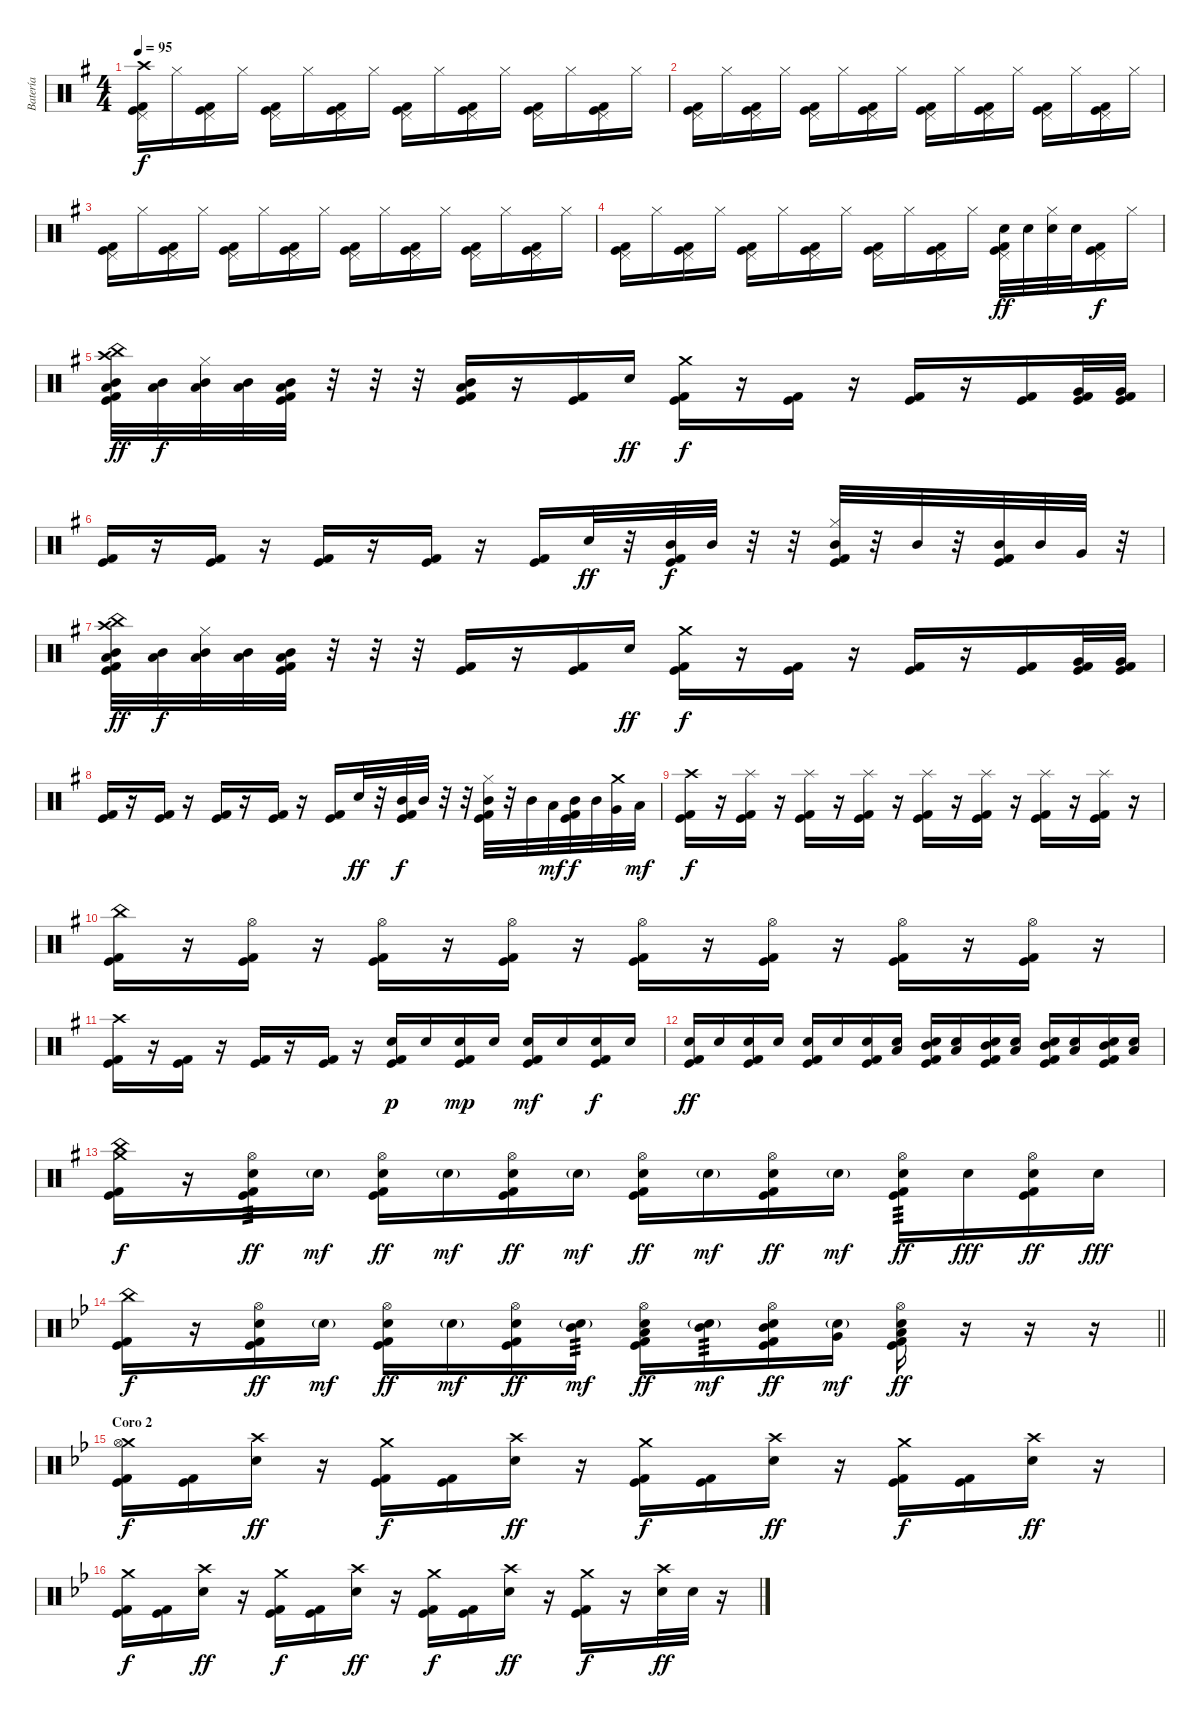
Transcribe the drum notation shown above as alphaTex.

\track ("Batería" "Batería") {instrument percussion}
\staff {score}
\articulation defaults
\ts (4 4)
\tempo 95
\clef neutral
\ks g
("Crash high (hit)" "Pedal Hi-Hat (hit)" "Kick (hit) 2" "Kick (hit)").16{dy f} "Hi-Hat (closed)".16 ("Pedal Hi-Hat (hit)" "Kick (hit) 2" "Kick (hit)").16 "Hi-Hat (closed)".16 ("Pedal Hi-Hat (hit)" "Kick (hit) 2" "Kick (hit)").16 "Hi-Hat (closed)".16 ("Pedal Hi-Hat (hit)" "Kick (hit) 2" "Kick (hit)").16 "Hi-Hat (closed)".16 ("Pedal Hi-Hat (hit)" "Kick (hit) 2" "Kick (hit)").16 "Hi-Hat (closed)".16 ("Pedal Hi-Hat (hit)" "Kick (hit) 2" "Kick (hit)").16 "Hi-Hat (closed)".16 ("Pedal Hi-Hat (hit)" "Kick (hit) 2" "Kick (hit)").16 "Hi-Hat (closed)".16 ("Pedal Hi-Hat (hit)" "Kick (hit) 2" "Kick (hit)").16 "Hi-Hat (closed)".16 |
("Pedal Hi-Hat (hit)" "Kick (hit) 2" "Kick (hit)").16 "Hi-Hat (closed)".16 ("Pedal Hi-Hat (hit)" "Kick (hit) 2" "Kick (hit)").16 "Hi-Hat (closed)".16 ("Pedal Hi-Hat (hit)" "Kick (hit) 2" "Kick (hit)").16 "Hi-Hat (closed)".16 ("Pedal Hi-Hat (hit)" "Kick (hit) 2" "Kick (hit)").16 "Hi-Hat (closed)".16 ("Pedal Hi-Hat (hit)" "Kick (hit) 2" "Kick (hit)").16 "Hi-Hat (closed)".16 ("Pedal Hi-Hat (hit)" "Kick (hit) 2" "Kick (hit)").16 "Hi-Hat (closed)".16 ("Pedal Hi-Hat (hit)" "Kick (hit) 2" "Kick (hit)").16 "Hi-Hat (closed)".16 ("Pedal Hi-Hat (hit)" "Kick (hit) 2" "Kick (hit)").16 "Hi-Hat (closed)".16 |
("Pedal Hi-Hat (hit)" "Kick (hit) 2" "Kick (hit)").16 "Hi-Hat (closed)".16 ("Pedal Hi-Hat (hit)" "Kick (hit) 2" "Kick (hit)").16 "Hi-Hat (closed)".16 ("Pedal Hi-Hat (hit)" "Kick (hit) 2" "Kick (hit)").16 "Hi-Hat (closed)".16 ("Pedal Hi-Hat (hit)" "Kick (hit) 2" "Kick (hit)").16 "Hi-Hat (closed)".16 ("Pedal Hi-Hat (hit)" "Kick (hit) 2" "Kick (hit)").16 "Hi-Hat (closed)".16 ("Pedal Hi-Hat (hit)" "Kick (hit) 2" "Kick (hit)").16 "Hi-Hat (closed)".16 ("Pedal Hi-Hat (hit)" "Kick (hit) 2" "Kick (hit)").16 "Hi-Hat (closed)".16 ("Pedal Hi-Hat (hit)" "Kick (hit) 2" "Kick (hit)").16 "Hi-Hat (closed)".16 |
("Pedal Hi-Hat (hit)" "Kick (hit) 2" "Kick (hit)").16 "Hi-Hat (closed)".16 ("Pedal Hi-Hat (hit)" "Kick (hit) 2" "Kick (hit)").16 "Hi-Hat (closed)".16 ("Pedal Hi-Hat (hit)" "Kick (hit) 2" "Kick (hit)").16 "Hi-Hat (closed)".16 ("Pedal Hi-Hat (hit)" "Kick (hit) 2" "Kick (hit)").16 "Hi-Hat (closed)".16 ("Pedal Hi-Hat (hit)" "Kick (hit) 2" "Kick (hit)").16 "Hi-Hat (closed)".16 ("Pedal Hi-Hat (hit)" "Kick (hit) 2" "Kick (hit)").16 "Hi-Hat (closed)".16 ("Pedal Hi-Hat (hit)" "Electric Snare (hit)" "Kick (hit) 2" "Kick (hit)").32{dy ff} "Electric Snare (hit)".32 ("Hi-Hat (closed)" "Electric Snare (hit)").32 "Electric Snare (hit)".32 ("Pedal Hi-Hat (hit)" "Kick (hit) 2" "Kick (hit)").16{dy f} "Hi-Hat (closed)".16 |
("Crash high (hit)" "China (hit)" "Mid Tom (hit)" "Low Tom (hit)" "Kick (hit) 2" "Kick (hit)").32{dy ff} ("Mid Tom (hit)" "Low Tom (hit)").32{dy f} ("Hi-Hat (closed)" "Mid Tom (hit)" "Low Tom (hit)").32 ("Mid Tom (hit)" "Low Tom (hit)").32 ("Mid Tom (hit)" "Low Tom (hit)" "Kick (hit) 2" "Kick (hit)").32 r.32 r.32 r.32 ("Mid Tom (hit)" "Low Tom (hit)" "Kick (hit) 2" "Kick (hit)").16 r.16 ("Kick (hit) 2" "Kick (hit)").16 "Electric Snare (hit)".16{dy ff} ("Crash medium (hit)" "Kick (hit) 2" "Kick (hit)").16{dy f} r.16 ("Kick (hit) 2" "Kick (hit)").16 r.16 ("Kick (hit) 2" "Kick (hit)").16 r.16 ("Kick (hit) 2" "Kick (hit)").16 ("Very Low Tom (hit)" "Kick (hit) 2" "Kick (hit)").32 ("Very Low Tom (hit)" "Kick (hit) 2" "Kick (hit)").32 |
("Kick (hit) 2" "Kick (hit)").16 r.16 ("Kick (hit) 2" "Kick (hit)").16 r.16 ("Kick (hit) 2" "Kick (hit)").16 r.16 ("Kick (hit) 2" "Kick (hit)").16 r.16 ("Kick (hit) 2" "Kick (hit)").16 "Electric Snare (hit)".32{dy ff} r.32 ("Mid Tom (hit)" "Kick (hit) 2" "Kick (hit)").32{dy f} "Mid Tom (hit)".32 r.32 r.32 ("Hi-Hat (closed)" "Mid Tom (hit)" "Kick (hit) 2" "Kick (hit)").32 r.32 "Mid Tom (hit)".32 r.32 ("Mid Tom (hit)" "Kick (hit) 2" "Kick (hit)").32 "Mid Tom (hit)".32 "Very Low Tom (hit)".32 r.32 |
("Crash high (hit)" "China (hit)" "Mid Tom (hit)" "Low Tom (hit)" "Kick (hit) 2" "Kick (hit)").32{dy ff} ("Mid Tom (hit)" "Low Tom (hit)").32{dy f} ("Hi-Hat (closed)" "Mid Tom (hit)" "Low Tom (hit)").32 ("Mid Tom (hit)" "Low Tom (hit)").32 ("Mid Tom (hit)" "Low Tom (hit)" "Kick (hit) 2" "Kick (hit)").32 r.32 r.32 r.32 ("Kick (hit) 2" "Kick (hit)").16 r.16 ("Kick (hit) 2" "Kick (hit)").16 "Electric Snare (hit)".16{dy ff} ("Crash medium (hit)" "Kick (hit) 2" "Kick (hit)").16{dy f} r.16 ("Kick (hit) 2" "Kick (hit)").16 r.16 ("Kick (hit) 2" "Kick (hit)").16 r.16 ("Kick (hit) 2" "Kick (hit)").16 ("Very Low Tom (hit)" "Kick (hit) 2" "Kick (hit)").32 ("Very Low Tom (hit)" "Kick (hit) 2" "Kick (hit)").32 |
("Kick (hit) 2" "Kick (hit)").16 r.16 ("Kick (hit) 2" "Kick (hit)").16 r.16 ("Kick (hit) 2" "Kick (hit)").16 r.16 ("Kick (hit) 2" "Kick (hit)").16 r.16 ("Kick (hit) 2" "Kick (hit)").16 "Electric Snare (hit)".32{dy ff} r.32 ("Mid Tom (hit)" "Kick (hit) 2" "Kick (hit)").32{dy f} "Mid Tom (hit)".32 r.32 r.32 ("Hi-Hat (closed)" "Mid Tom (hit)" "Kick (hit) 2" "Kick (hit)").32 r.32 "Mid Tom (hit)".32 "Low Tom (hit)".32{dy mf} ("Mid Tom (hit)" "Kick (hit) 2" "Kick (hit)").32{dy f} "Mid Tom (hit)".32 ("Crash medium (hit)" "Very Low Tom (hit)").32 "Low Floor Tom (hit)".32{dy mf} |
("Crash high (hit)" "Kick (hit) 2" "Kick (hit)").16{dy f} r.16 ("Splash (hit)" "Kick (hit) 2" "Kick (hit)").16 r.16 ("Splash (hit)" "Kick (hit) 2" "Kick (hit)").16 r.16 ("Splash (hit)" "Kick (hit) 2" "Kick (hit)").16 r.16 ("Splash (hit)" "Kick (hit) 2" "Kick (hit)").16 r.16 ("Splash (hit)" "Kick (hit) 2" "Kick (hit)").16 r.16 ("Splash (hit)" "Kick (hit) 2" "Kick (hit)").16 r.16 ("Splash (hit)" "Kick (hit) 2" "Kick (hit)").16 r.16 |
("China (hit)" "Kick (hit) 2" "Kick (hit)").16 r.16 ("Hi-Hat (open)" "Kick (hit) 2" "Kick (hit)").16 r.16 ("Hi-Hat (open)" "Kick (hit) 2" "Kick (hit)").16 r.16 ("Hi-Hat (open)" "Kick (hit) 2" "Kick (hit)").16 r.16 ("Hi-Hat (open)" "Kick (hit) 2" "Kick (hit)").16 r.16 ("Hi-Hat (open)" "Kick (hit) 2" "Kick (hit)").16 r.16 ("Hi-Hat (open)" "Kick (hit) 2" "Kick (hit)").16 r.16 ("Hi-Hat (open)" "Kick (hit) 2" "Kick (hit)").16 r.16 |
("Crash high (hit)" "Kick (hit) 2" "Kick (hit)").16 r.16 ("Kick (hit) 2" "Kick (hit)").16 r.16 ("Kick (hit) 2" "Kick (hit)").16 r.16 ("Kick (hit) 2" "Kick (hit)").16 r.16 ("Electric Snare (hit)" "Kick (hit) 2" "Kick (hit)").16{dy p} "Electric Snare (hit)".16 ("Electric Snare (hit)" "Kick (hit) 2" "Kick (hit)").16{dy mp} "Electric Snare (hit)".16 ("Electric Snare (hit)" "Kick (hit) 2" "Kick (hit)").16{dy mf} "Electric Snare (hit)".16 ("Electric Snare (hit)" "Kick (hit) 2" "Kick (hit)").16{dy f} "Electric Snare (hit)".16 |
("Electric Snare (hit)" "Kick (hit) 2" "Kick (hit)").16{dy ff} "Electric Snare (hit)".16 ("Electric Snare (hit)" "Kick (hit) 2" "Kick (hit)").16 "Electric Snare (hit)".16 ("Electric Snare (hit)" "Kick (hit) 2" "Kick (hit)").16 "Electric Snare (hit)".16 ("Electric Snare (hit)" "Kick (hit) 2" "Kick (hit)").16 ("Low Tom (hit)" "Electric Snare (hit)").16 ("Mid Tom (hit)" "Electric Snare (hit)" "Kick (hit) 2" "Kick (hit)").16 ("Low Tom (hit)" "Electric Snare (hit)").16 ("Mid Tom (hit)" "Electric Snare (hit)" "Kick (hit) 2" "Kick (hit)").16 ("Low Tom (hit)" "Electric Snare (hit)").16 ("Mid Tom (hit)" "Electric Snare (hit)" "Kick (hit) 2" "Kick (hit)").16 ("Low Tom (hit)" "Electric Snare (hit)").16 ("Mid Tom (hit)" "Electric Snare (hit)" "Kick (hit) 2" "Kick (hit)").16 ("Low Tom (hit)" "Electric Snare (hit)").16 |
("Crash medium (hit)" "China (hit)" "Kick (hit) 2" "Kick (hit)").16{dy f} r.16 ("Hi-Hat (open)" "Electric Snare (hit)" "Kick (hit) 2" "Kick (hit)").16{tp 3 dy ff} "Electric Snare (hit)"{g}.16{dy mf} ("Hi-Hat (open)" "Electric Snare (hit)" "Kick (hit) 2" "Kick (hit)").16{dy ff} "Electric Snare (hit)"{g}.16{dy mf} ("Hi-Hat (open)" "Electric Snare (hit)" "Kick (hit) 2" "Kick (hit)").16{dy ff} "Electric Snare (hit)"{g}.16{dy mf} ("Hi-Hat (open)" "Electric Snare (hit)" "Kick (hit) 2" "Kick (hit)").16{dy ff} "Electric Snare (hit)"{g}.16{dy mf} ("Hi-Hat (open)" "Electric Snare (hit)" "Kick (hit) 2" "Kick (hit)").16{dy ff} "Electric Snare (hit)"{g}.16{dy mf} ("Hi-Hat (open)" "Electric Snare (hit)" "Kick (hit) 2" "Kick (hit)").16{tp 3 dy ff} "Electric Snare (hit)".16{dy fff} ("Hi-Hat (open)" "Electric Snare (hit)" "Kick (hit) 2" "Kick (hit)").16{dy ff} "Electric Snare (hit)".16{dy fff} |
\barLineRight lightlight
\ks bb
("China (hit)" "Kick (hit) 2" "Kick (hit)").16{dy f} r.16 ("Hi-Hat (open)" "Electric Snare (hit)" "Kick (hit) 2" "Kick (hit)").16{dy ff} "Electric Snare (hit)"{g}.16{dy mf} ("Hi-Hat (open)" "Electric Snare (hit)" "Kick (hit) 2" "Kick (hit)").16{dy ff} "Electric Snare (hit)"{g}.16{dy mf} ("Hi-Hat (open)" "Electric Snare (hit)" "Kick (hit) 2" "Kick (hit)").16{dy ff} ("Mid Tom (hit)" "Electric Snare (hit)"{g}).16{tp 3 dy mf} ("Hi-Hat (open)" "Low Tom (hit)" "Electric Snare (hit)" "Kick (hit) 2" "Kick (hit)").16{dy ff} ("Mid Tom (hit)" "Electric Snare (hit)"{g}).16{tp 3 dy mf} ("Hi-Hat (open)" "Mid Tom (hit)" "Electric Snare (hit)" "Kick (hit) 2" "Kick (hit)").16{dy ff} ("Very Low Tom (hit)" "Electric Snare (hit)"{g}).16{dy mf} ("Hi-Hat (open)" "Low Tom (hit)" "Electric Snare (hit)" "Kick (hit) 2" "Kick (hit)").16{dy ff} r.16 r.16 r.16 |
\section ("" "Coro 2")
("Crash medium (hit)" "Hi-Hat (open)" "Kick (hit) 2" "Kick (hit)").16{dy f} ("Kick (hit) 2" "Kick (hit)").16 ("Crash high (hit)" "Electric Snare (hit)").16{dy ff} r.16 ("Crash medium (hit)" "Kick (hit) 2" "Kick (hit)").16{dy f} ("Kick (hit) 2" "Kick (hit)").16 ("Crash high (hit)" "Electric Snare (hit)").16{dy ff} r.16 ("Crash medium (hit)" "Kick (hit) 2" "Kick (hit)").16{dy f} ("Kick (hit) 2" "Kick (hit)").16 ("Crash high (hit)" "Electric Snare (hit)").16{dy ff} r.16 ("Crash medium (hit)" "Kick (hit) 2" "Kick (hit)").16{dy f} ("Kick (hit) 2" "Kick (hit)").16 ("Crash high (hit)" "Electric Snare (hit)").16{dy ff} r.16 |
("Crash medium (hit)" "Kick (hit) 2" "Kick (hit)").16{dy f} ("Kick (hit) 2" "Kick (hit)").16 ("Crash high (hit)" "Electric Snare (hit)").16{dy ff} r.16 ("Crash medium (hit)" "Kick (hit) 2" "Kick (hit)").16{dy f} ("Kick (hit) 2" "Kick (hit)").16 ("Crash high (hit)" "Electric Snare (hit)").16{dy ff} r.16 ("Crash medium (hit)" "Kick (hit) 2" "Kick (hit)").16{dy f} ("Kick (hit) 2" "Kick (hit)").16 ("Crash high (hit)" "Electric Snare (hit)").16{dy ff} r.16 ("Crash medium (hit)" "Kick (hit) 2" "Kick (hit)").16{dy f} r.16 ("Crash high (hit)" "Electric Snare (hit)").32{dy ff} "Electric Snare (hit)".32 r.16
